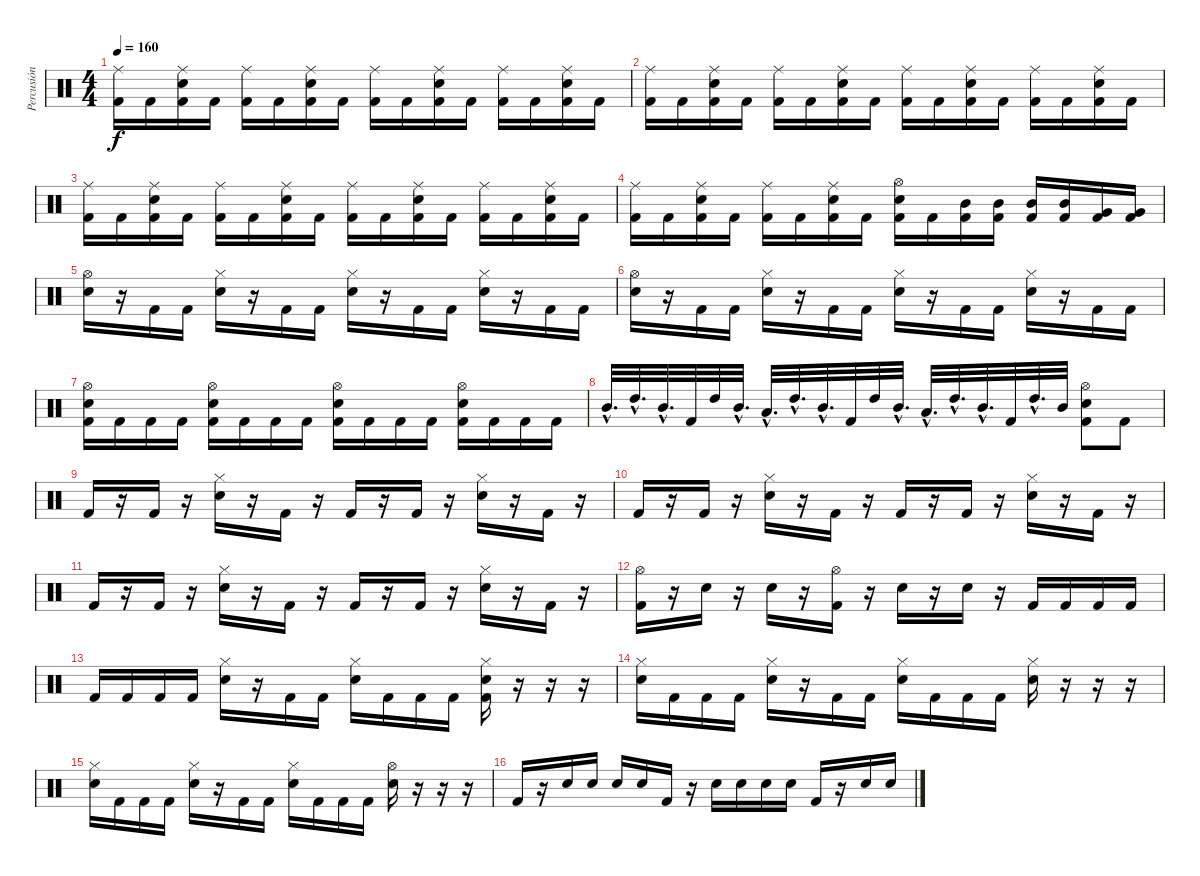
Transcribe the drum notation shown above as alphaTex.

\track ("Percusión" "Percusión") {instrument percussion}
\staff {score}
\articulation defaults
\ts (4 4)
\tempo 160
\clef neutral
\ks c
("Ride (middle)" "Kick (hit) 2").16{dy f} "Kick (hit) 2".16 ("Ride (middle)" "Snare (hit) 2" "Kick (hit) 2").16 "Kick (hit) 2".16 ("Ride (middle)" "Kick (hit) 2").16 "Kick (hit) 2".16 ("Ride (middle)" "Snare (hit) 2" "Kick (hit) 2").16 "Kick (hit) 2".16 ("Ride (middle)" "Kick (hit) 2").16 "Kick (hit) 2".16 ("Ride (middle)" "Snare (hit) 2" "Kick (hit) 2").16 "Kick (hit) 2".16 ("Ride (middle)" "Kick (hit) 2").16 "Kick (hit) 2".16 ("Ride (middle)" "Snare (hit) 2" "Kick (hit) 2").16 "Kick (hit) 2".16 |
("Ride (middle)" "Kick (hit) 2").16 "Kick (hit) 2".16 ("Ride (middle)" "Snare (hit) 2" "Kick (hit) 2").16 "Kick (hit) 2".16 ("Ride (middle)" "Kick (hit) 2").16 "Kick (hit) 2".16 ("Ride (middle)" "Snare (hit) 2" "Kick (hit) 2").16 "Kick (hit) 2".16 ("Ride (middle)" "Kick (hit) 2").16 "Kick (hit) 2".16 ("Ride (middle)" "Snare (hit) 2" "Kick (hit) 2").16 "Kick (hit) 2".16 ("Ride (middle)" "Kick (hit) 2").16 "Kick (hit) 2".16 ("Ride (middle)" "Snare (hit) 2" "Kick (hit) 2").16 "Kick (hit) 2".16 |
("Ride (middle)" "Kick (hit) 2").16 "Kick (hit) 2".16 ("Ride (middle)" "Snare (hit) 2" "Kick (hit) 2").16 "Kick (hit) 2".16 ("Ride (middle)" "Kick (hit) 2").16 "Kick (hit) 2".16 ("Ride (middle)" "Snare (hit) 2" "Kick (hit) 2").16 "Kick (hit) 2".16 ("Ride (middle)" "Kick (hit) 2").16 "Kick (hit) 2".16 ("Ride (middle)" "Snare (hit) 2" "Kick (hit) 2").16 "Kick (hit) 2".16 ("Ride (middle)" "Kick (hit) 2").16 "Kick (hit) 2".16 ("Ride (middle)" "Snare (hit) 2" "Kick (hit) 2").16 "Kick (hit) 2".16 |
("Ride (middle)" "Kick (hit) 2").16 "Kick (hit) 2".16 ("Ride (middle)" "Snare (hit) 2" "Kick (hit) 2").16 "Kick (hit) 2".16 ("Ride (middle)" "Kick (hit) 2").16 "Kick (hit) 2".16 ("Ride (middle)" "Snare (hit) 2" "Kick (hit) 2").16 "Kick (hit) 2".16 ("Hi-Hat (open)" "Snare (hit) 2" "Kick (hit) 2").16 "Kick (hit) 2".16 ("Mid Tom (hit)" "Kick (hit) 2").16 ("Mid Tom (hit)" "Kick (hit) 2").16 ("Mid Tom (hit)" "Kick (hit) 2").16 ("Mid Tom (hit)" "Kick (hit) 2").16 ("Very Low Tom (hit)" "Kick (hit) 2").16 ("Very Low Tom (hit)" "Kick (hit) 2").16 |
("Hi-Hat (open)" "Snare (hit) 2").16 r.16 "Kick (hit) 2".16 "Kick (hit) 2".16 ("Hi-Hat (closed)" "Snare (hit) 2").16 r.16 "Kick (hit) 2".16 "Kick (hit) 2".16 ("Hi-Hat (closed)" "Snare (hit) 2").16 r.16 "Kick (hit) 2".16 "Kick (hit) 2".16 ("Hi-Hat (closed)" "Snare (hit) 2").16 r.16 "Kick (hit) 2".16 "Kick (hit) 2".16 |
("Hi-Hat (open)" "Snare (hit) 2").16 r.16 "Kick (hit) 2".16 "Kick (hit) 2".16 ("Hi-Hat (closed)" "Snare (hit) 2").16 r.16 "Kick (hit) 2".16 "Kick (hit) 2".16 ("Hi-Hat (closed)" "Snare (hit) 2").16 r.16 "Kick (hit) 2".16 "Kick (hit) 2".16 ("Hi-Hat (closed)" "Snare (hit) 2").16 r.16 "Kick (hit) 2".16 "Kick (hit) 2".16 |
("Hi-Hat (open)" "Snare (hit) 2" "Kick (hit) 2").16 "Kick (hit) 2".16 "Kick (hit) 2".16 "Kick (hit) 2".16 ("Hi-Hat (open)" "Snare (hit) 2" "Kick (hit) 2").16 "Kick (hit) 2".16 "Kick (hit) 2".16 "Kick (hit) 2".16 ("Hi-Hat (open)" "Snare (hit) 2" "Kick (hit) 2").16 "Kick (hit) 2".16 "Kick (hit) 2".16 "Kick (hit) 2".16 ("Hi-Hat (open)" "Snare (hit) 2" "Kick (hit) 2").16 "Kick (hit) 2".16 "Kick (hit) 2".16 "Kick (hit) 2".16 |
"Mid Tom (hit)"{hac}.32{d} "High Tom (hit)"{hac}.32{d} "Mid Tom (hit)"{hac}.32{d} "Kick (hit) 2".32 "High Tom (hit)".32 "Mid Tom (hit)"{hac}.32{d} "Low Tom (hit)"{hac}.32{d} "High Tom (hit)"{hac}.32{d} "Mid Tom (hit)"{hac}.32{d} "Kick (hit) 2".32 "High Tom (hit)".32 "Mid Tom (hit)"{hac}.32{d} "Low Tom (hit)"{hac}.32{d} "High Tom (hit)"{hac}.32{d} "Mid Tom (hit)"{hac}.32{d} "Kick (hit) 2".32 "High Tom (hit)"{hac}.32{d} "Mid Tom (hit)".32 ("Hi-Hat (open)" "Snare (hit) 2" "Kick (hit) 2").8 "Kick (hit) 2".8 |
"Kick (hit) 2".16 r.16 "Kick (hit) 2".16 r.16 ("Hi-Hat (closed)" "Snare (hit) 2").16 r.16 "Kick (hit) 2".16 r.16 "Kick (hit) 2".16 r.16 "Kick (hit) 2".16 r.16 ("Hi-Hat (closed)" "Snare (hit) 2").16 r.16 "Kick (hit) 2".16 r.16 |
"Kick (hit) 2".16 r.16 "Kick (hit) 2".16 r.16 ("Hi-Hat (closed)" "Snare (hit) 2").16 r.16 "Kick (hit) 2".16 r.16 "Kick (hit) 2".16 r.16 "Kick (hit) 2".16 r.16 ("Hi-Hat (closed)" "Snare (hit) 2").16 r.16 "Kick (hit) 2".16 r.16 |
"Kick (hit) 2".16 r.16 "Kick (hit) 2".16 r.16 ("Hi-Hat (closed)" "Snare (hit) 2").16 r.16 "Kick (hit) 2".16 r.16 "Kick (hit) 2".16 r.16 "Kick (hit) 2".16 r.16 ("Hi-Hat (closed)" "Snare (hit) 2").16 r.16 "Kick (hit) 2".16 r.16 |
("Hi-Hat (open)" "Kick (hit) 2").16 r.16 "Snare (hit) 2".16 r.16 "Snare (hit) 2".16 r.16 ("Hi-Hat (open)" "Kick (hit) 2").16 r.16 "Snare (hit) 2".16 r.16 "Snare (hit) 2".16 r.16 "Kick (hit) 2".16 "Kick (hit) 2".16 "Kick (hit) 2".16 "Kick (hit) 2".16 |
"Kick (hit) 2".16 "Kick (hit) 2".16 "Kick (hit) 2".16 "Kick (hit) 2".16 ("Hi-Hat (closed)" "Snare (hit) 2").16 r.16 "Kick (hit) 2".16 "Kick (hit) 2".16 ("Hi-Hat (closed)" "Snare (hit) 2").16 "Kick (hit) 2".16 "Kick (hit) 2".16 "Kick (hit) 2".16 ("Hi-Hat (closed)" "Snare (hit) 2" "Kick (hit) 2").16 r.16 r.16 r.16 |
("Hi-Hat (closed)" "Snare (hit) 2").16 "Kick (hit) 2".16 "Kick (hit) 2".16 "Kick (hit) 2".16 ("Hi-Hat (closed)" "Snare (hit) 2").16 r.16 "Kick (hit) 2".16 "Kick (hit) 2".16 ("Hi-Hat (closed)" "Snare (hit) 2").16 "Kick (hit) 2".16 "Kick (hit) 2".16 "Kick (hit) 2".16 ("Hi-Hat (closed)" "Snare (hit) 2").16 r.16 r.16 r.16 |
("Hi-Hat (closed)" "Snare (hit) 2").16 "Kick (hit) 2".16 "Kick (hit) 2".16 "Kick (hit) 2".16 ("Hi-Hat (closed)" "Snare (hit) 2").16 r.16 "Kick (hit) 2".16 "Kick (hit) 2".16 ("Hi-Hat (closed)" "Snare (hit) 2").16 "Kick (hit) 2".16 "Kick (hit) 2".16 "Kick (hit) 2".16 ("Hi-Hat (open)" "Snare (hit) 2").16 r.16 r.16 r.16 |
"Kick (hit) 2".16 r.16 "Snare (hit) 2".16 "Snare (hit) 2".16 "Snare (hit) 2".16 "Snare (hit) 2".16 "Kick (hit) 2".16 r.16 "Snare (hit) 2".16 "Snare (hit) 2".16 "Snare (hit) 2".16 "Snare (hit) 2".16 "Kick (hit) 2".16 r.16 "Snare (hit) 2".16 "Snare (hit) 2".16
